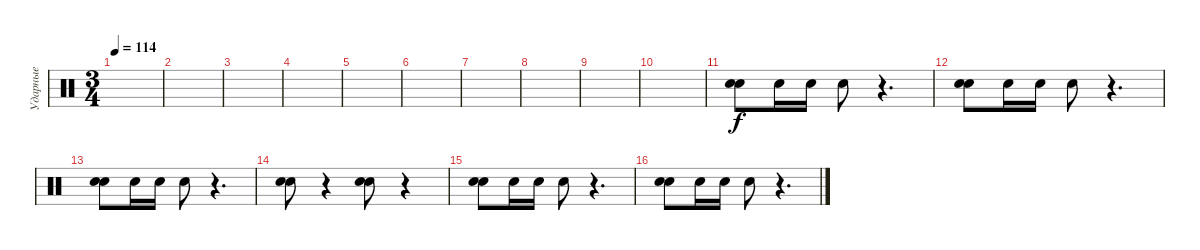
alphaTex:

\track ("Ударные" "Ударные") {instrument percussion}
\staff {score}
\articulation defaults
\ts (3 4)
\tempo 114
\clef neutral
\ks c
|
|
|
|
|
|
|
|
|
|
("Snare (hit) 2" "Electric Snare (hit)").8 "Electric Snare (hit)".16 "Electric Snare (hit)".16 "Electric Snare (hit)".8 r.4{d} |
("Snare (hit) 2" "Electric Snare (hit)").8 "Electric Snare (hit)".16 "Electric Snare (hit)".16 "Electric Snare (hit)".8 r.4{d} |
("Snare (hit) 2" "Electric Snare (hit)").8 "Electric Snare (hit)".16 "Electric Snare (hit)".16 "Electric Snare (hit)".8 r.4{d} |
("Snare (hit) 2" "Electric Snare (hit)").8 r.4 ("Snare (hit) 2" "Electric Snare (hit)").8 r.4 |
("Snare (hit) 2" "Electric Snare (hit)").8 "Electric Snare (hit)".16 "Electric Snare (hit)".16 "Electric Snare (hit)".8 r.4{d} |
("Snare (hit) 2" "Electric Snare (hit)").8 "Electric Snare (hit)".16 "Electric Snare (hit)".16 "Electric Snare (hit)".8 r.4{d}
